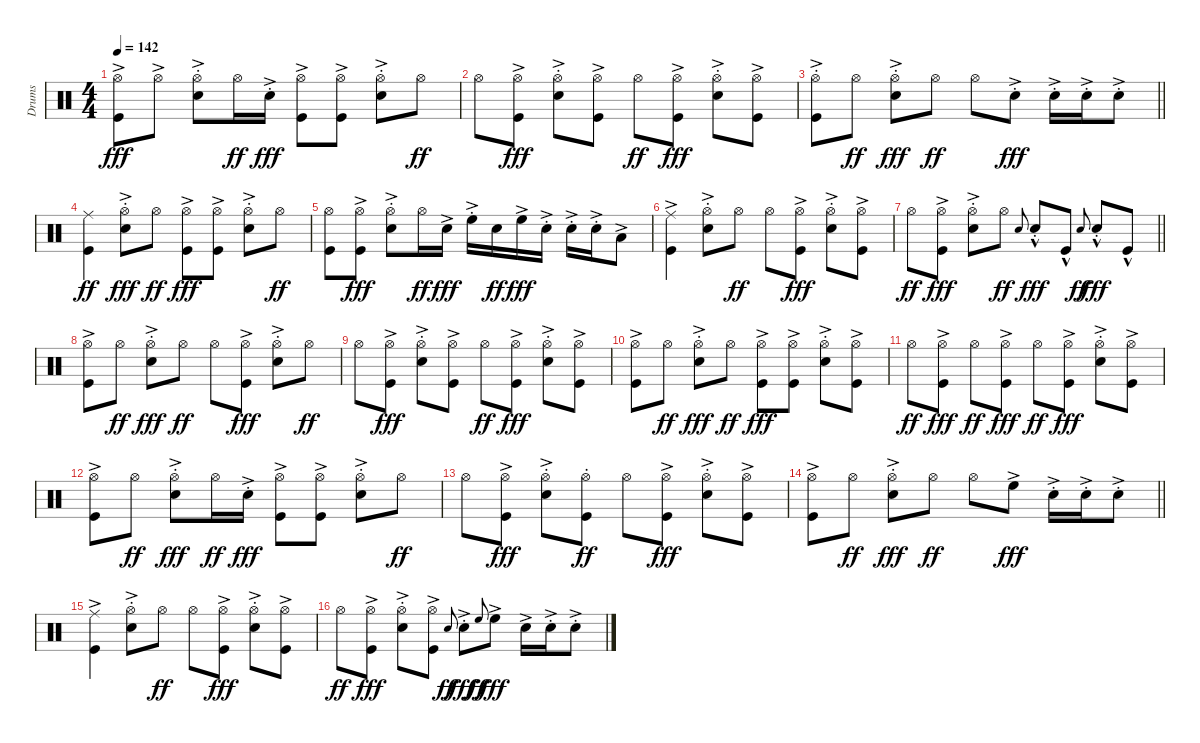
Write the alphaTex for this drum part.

\track ("Drums" "Drums") {instrument percussion}
\staff {score}
\articulation defaults
\ts (4 4)
\tempo 142
\clef neutral
\ks c
("Hi-Hat (open)"{ac} "Kick (hit)"{ac}).8{dy fff} "Hi-Hat (open)"{ac}.8 ("Hi-Hat (open)"{ac st} "Snare (hit) 2"{ac st}).8 "Hi-Hat (open)".16{dy ff} "Snare (hit) 2"{ac st}.16{dy fff} ("Hi-Hat (open)"{ac} "Kick (hit)"{ac}).8 ("Hi-Hat (open)"{ac} "Kick (hit)"{ac}).8 ("Hi-Hat (open)"{ac st} "Snare (hit) 2"{ac st}).8 "Hi-Hat (open)".8{dy ff} |
"Hi-Hat (open)".8 ("Hi-Hat (open)"{ac} "Kick (hit)"{ac}).8{dy fff} ("Hi-Hat (open)"{ac st} "Snare (hit) 2"{ac st}).8 ("Hi-Hat (open)"{ac} "Kick (hit)"{ac}).8 "Hi-Hat (open)".8{dy ff} ("Hi-Hat (open)"{ac} "Kick (hit)"{ac}).8{dy fff} ("Hi-Hat (open)"{ac st} "Snare (hit) 2"{ac st}).8 ("Hi-Hat (open)"{ac} "Kick (hit)"{ac}).8 |
\barLineRight lightlight
("Hi-Hat (open)"{ac st} "Kick (hit)"{ac st}).8 "Hi-Hat (open)".8{dy ff} ("Hi-Hat (open)"{ac st} "Snare (hit) 2"{ac st}).8{dy fff} "Hi-Hat (open)".8{dy ff} "Hi-Hat (open)".8 "Snare (hit) 2"{ac st}.8{dy fff} "Snare (hit) 2"{ac st}.16 "Snare (hit) 2"{ac st}.16 "Snare (hit) 2"{ac st}.8 |
("Ride (middle)" "Kick (hit)").4{dy ff} ("Hi-Hat (open)"{ac st} "Snare (hit) 2"{ac st}).8{dy fff} "Hi-Hat (open)".8{dy ff} ("Hi-Hat (open)"{ac} "Kick (hit)"{ac}).8{dy fff} ("Hi-Hat (open)"{ac} "Kick (hit)"{ac}).8 ("Hi-Hat (open)"{ac st} "Snare (hit) 2"{ac st}).8 "Hi-Hat (open)".8{dy ff} |
("Hi-Hat (open)" "Kick (hit)").8 ("Hi-Hat (open)"{ac} "Kick (hit)"{ac}).8{dy fff} ("Hi-Hat (open)"{ac st} "Snare (hit) 2"{ac st}).8 "Hi-Hat (open)".16{dy ff} "Snare (hit) 2"{ac}.16{dy fff} "High Floor Tom (hit)"{ac st}.16 "Snare (hit) 2".16{dy ff} "High Floor Tom (hit)"{ac}.16{dy fff} "Snare (hit) 2"{ac st}.16 "Snare (hit) 2"{ac st}.16 "Snare (hit) 2"{ac st}.16 "Low Floor Tom (hit)"{ac}.8 |
("Ride (middle)"{ac} "Kick (hit)"{ac}).4 ("Hi-Hat (open)"{ac st} "Snare (hit) 2"{ac st}).8 "Hi-Hat (open)".8{dy ff} "Hi-Hat (open)".8 ("Hi-Hat (open)"{ac} "Kick (hit)"{ac}).8{dy fff} ("Hi-Hat (open)"{ac st} "Snare (hit) 2"{ac st}).8 ("Hi-Hat (open)"{ac} "Kick (hit)"{ac}).8 |
\barLineRight lightlight "Hi-Hat (open)".8{dy ff}
("Hi-Hat (open)"{ac} "Kick (hit)"{ac}).8{dy fff} ("Hi-Hat (open)"{ac st} "Snare (hit) 2"{ac st}).8 "Hi-Hat (open)".8{dy ff} "Snare (hit) 2"{h}.8{gr onbeat} "Snare (hit) 2"{hac st}.8{dy fff} "Kick (hit)"{hac}.8 "Snare (hit) 2"{h}.8{gr onbeat dy ff} "Snare (hit) 2"{hac st}.8{dy fff} "Kick (hit)"{hac}.8 |
("Hi-Hat (open)"{ac} "Kick (hit)"{ac}).8 "Hi-Hat (open)".8{dy ff} ("Hi-Hat (open)"{ac st} "Snare (hit) 2"{ac st}).8{dy fff} "Hi-Hat (open)".8{dy ff} "Hi-Hat (open)".8 ("Hi-Hat (open)"{ac} "Kick (hit)"{ac}).8{dy fff} ("Hi-Hat (open)"{ac st} "Snare (hit) 2"{ac st}).8 "Hi-Hat (open)".8{dy ff} |
"Hi-Hat (open)".8 ("Hi-Hat (open)"{ac} "Kick (hit)"{ac}).8{dy fff} ("Hi-Hat (open)"{ac st} "Snare (hit) 2"{ac st}).8 ("Hi-Hat (open)"{ac} "Kick (hit)"{ac}).8 "Hi-Hat (open)".8{dy ff} ("Hi-Hat (open)"{ac} "Kick (hit)"{ac}).8{dy fff} ("Hi-Hat (open)"{ac st} "Snare (hit) 2"{ac st}).8 ("Hi-Hat (open)"{ac} "Kick (hit)"{ac}).8 |
("Hi-Hat (open)"{ac} "Kick (hit)"{ac}).8 "Hi-Hat (open)".8{dy ff} ("Hi-Hat (open)"{ac st} "Snare (hit) 2"{ac st}).8{dy fff} "Hi-Hat (open)".8{dy ff} ("Hi-Hat (open)"{ac} "Kick (hit)"{ac}).8{dy fff} ("Hi-Hat (open)"{ac} "Kick (hit)"{ac}).8 ("Hi-Hat (open)"{ac st} "Snare (hit) 2"{ac st}).8 ("Hi-Hat (open)"{ac} "Kick (hit)"{ac}).8 |
"Hi-Hat (open)".8{dy ff} ("Hi-Hat (open)"{ac} "Kick (hit)"{ac}).8{dy fff} "Hi-Hat (open)".8{dy ff} ("Hi-Hat (open)"{ac} "Kick (hit)"{ac}).8{dy fff} "Hi-Hat (open)".8{dy ff} ("Hi-Hat (open)"{ac} "Kick (hit)"{ac}).8{dy fff} ("Hi-Hat (open)"{ac st} "Snare (hit) 2"{ac st}).8 ("Hi-Hat (open)"{ac} "Kick (hit)"{ac}).8 |
("Hi-Hat (open)"{ac} "Kick (hit)"{ac}).8 "Hi-Hat (open)".8{dy ff} ("Hi-Hat (open)"{ac st} "Snare (hit) 2"{ac st}).8{dy fff} "Hi-Hat (open)".16{dy ff} "Snare (hit) 2"{ac st}.16{dy fff} ("Hi-Hat (open)"{ac} "Kick (hit)"{ac}).8 ("Hi-Hat (open)"{ac} "Kick (hit)"{ac}).8 ("Hi-Hat (open)"{ac st} "Snare (hit) 2"{ac st}).8 "Hi-Hat (open)".8{dy ff} |
"Hi-Hat (open)".8 ("Hi-Hat (open)"{ac} "Kick (hit)"{ac}).8{dy fff} ("Hi-Hat (open)"{ac st} "Snare (hit) 2"{ac st}).8 ("Hi-Hat (open)"{st} "Kick (hit)"{st}).8{dy ff} "Hi-Hat (open)".8 ("Hi-Hat (open)"{ac} "Kick (hit)"{ac}).8{dy fff} ("Hi-Hat (open)"{ac st} "Snare (hit) 2"{ac st}).8 ("Hi-Hat (open)"{ac} "Kick (hit)"{ac}).8 |
\barLineRight lightlight
("Hi-Hat (open)"{ac} "Kick (hit)"{ac}).8 "Hi-Hat (open)".8{dy ff} ("Hi-Hat (open)"{ac st} "Snare (hit) 2"{ac st}).8{dy fff} "Hi-Hat (open)".8{dy ff} "Hi-Hat (open)".8 "High Floor Tom (hit)"{ac}.8{dy fff} "Snare (hit) 2"{ac st}.16 "Snare (hit) 2"{ac st}.16 "Snare (hit) 2"{ac st}.8 |
("Ride (middle)"{ac} "Kick (hit)"{ac}).4 ("Hi-Hat (open)"{ac st} "Snare (hit) 2"{ac st}).8 "Hi-Hat (open)".8{dy ff} "Hi-Hat (open)".8 ("Hi-Hat (open)"{ac} "Kick (hit)"{ac}).8{dy fff} ("Hi-Hat (open)"{ac st} "Snare (hit) 2"{ac st}).8 ("Hi-Hat (open)"{ac} "Kick (hit)"{ac}).8 |
"Hi-Hat (open)".8{dy ff} ("Hi-Hat (open)"{ac} "Kick (hit)"{ac}).8{dy fff} ("Hi-Hat (open)"{ac st} "Snare (hit) 2"{ac st}).8 ("Hi-Hat (open)"{ac} "Kick (hit)"{ac}).8 "Snare (hit) 2"{h}.8{gr onbeat dy ff} "Snare (hit) 2"{ac st}.8{dy fff} "High Floor Tom (hit)"{h}.8{gr onbeat dy ff} "High Floor Tom (hit)"{ac}.8{dy fff} "Snare (hit) 2"{ac}.16 "Snare (hit) 2"{ac st}.16 "Snare (hit) 2"{ac st}.8
